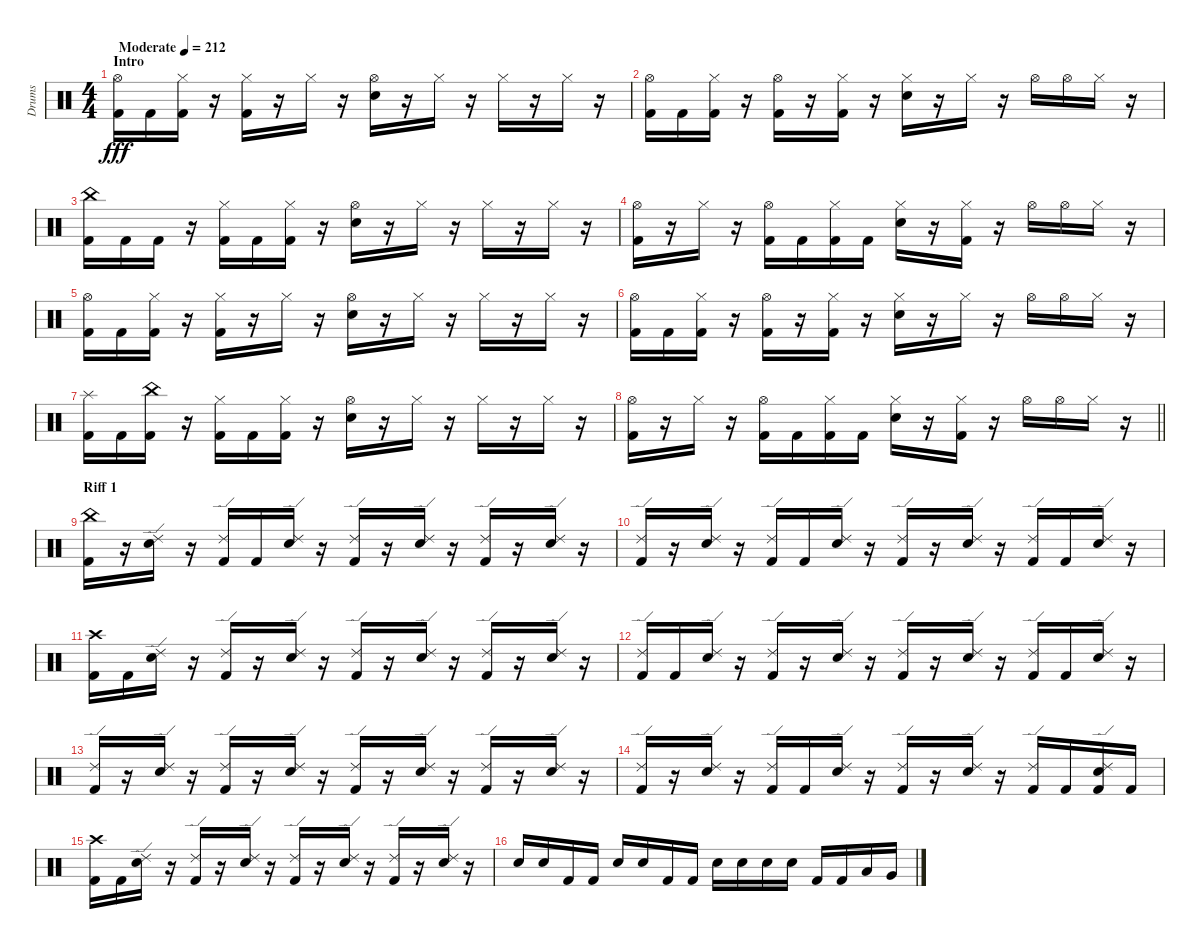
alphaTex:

\track ("Drums" "Drums") {instrument percussion}
\staff {score}
\articulation defaults
\ts (4 4)
\section ("" "Intro")
\tempo (212 "Moderate")
\clef neutral
\ks c
("Kick (hit) 2" "Hi-Hat (open)").16{dy fff} "Kick (hit) 2".16 ("Kick (hit) 2" "Hi-Hat (closed)").16 r.16 ("Kick (hit) 2" "Hi-Hat (closed)").16 r.16 "Hi-Hat (closed)".16 r.16 ("Snare (hit) 2" "Hi-Hat (open)").16 r.16 "Hi-Hat (closed)".16 r.16 "Hi-Hat (closed)".16 r.16 "Hi-Hat (closed)".16 r.16 |
("Kick (hit) 2" "Hi-Hat (open)").16 "Kick (hit) 2".16 ("Kick (hit) 2" "Hi-Hat (closed)").16 r.16 ("Kick (hit) 2" "Hi-Hat (open)").16 r.16 ("Kick (hit) 2" "Hi-Hat (closed)").16 r.16 ("Snare (hit) 2" "Hi-Hat (closed)").16 r.16 "Hi-Hat (closed)".16 r.16 "Hi-Hat (open)".16 "Hi-Hat (open)".16 "Hi-Hat (closed)".16 r.16 |
("Kick (hit) 2" "China (hit)").16 "Kick (hit) 2".16 "Kick (hit) 2".16 r.16 ("Kick (hit) 2" "Hi-Hat (closed)").16 "Kick (hit) 2".16 ("Kick (hit) 2" "Hi-Hat (closed)").16 r.16 ("Snare (hit) 2" "Hi-Hat (open)").16 r.16 "Hi-Hat (closed)".16 r.16 "Hi-Hat (closed)".16 r.16 "Hi-Hat (closed)".16 r.16 |
("Kick (hit) 2" "Hi-Hat (open)").16 r.16 "Hi-Hat (closed)".16 r.16 ("Kick (hit) 2" "Hi-Hat (open)").16 "Kick (hit) 2".16 ("Kick (hit) 2" "Hi-Hat (closed)").16 "Kick (hit) 2".16 ("Snare (hit) 2" "Hi-Hat (closed)").16 r.16 ("Kick (hit) 2" "Hi-Hat (closed)").16 r.16 "Hi-Hat (open)".16 "Hi-Hat (open)".16 "Hi-Hat (closed)".16 r.16 |
("Kick (hit) 2" "Hi-Hat (open)").16 "Kick (hit) 2".16 ("Kick (hit) 2" "Hi-Hat (closed)").16 r.16 ("Kick (hit) 2" "Hi-Hat (closed)").16 r.16 "Hi-Hat (closed)".16 r.16 ("Snare (hit) 2" "Hi-Hat (open)").16 r.16 "Hi-Hat (closed)".16 r.16 "Hi-Hat (closed)".16 r.16 "Hi-Hat (closed)".16 r.16 |
("Kick (hit) 2" "Hi-Hat (open)").16 "Kick (hit) 2".16 ("Kick (hit) 2" "Hi-Hat (closed)").16 r.16 ("Kick (hit) 2" "Hi-Hat (open)").16 r.16 ("Kick (hit) 2" "Hi-Hat (closed)").16 r.16 ("Snare (hit) 2" "Hi-Hat (closed)").16 r.16 "Hi-Hat (closed)".16 r.16 "Hi-Hat (open)".16 "Hi-Hat (open)".16 "Hi-Hat (closed)".16 r.16 |
("Kick (hit) 2" "Splash (hit)").16 "Kick (hit) 2".16 ("Kick (hit) 2" "China (hit)").16 r.16 ("Kick (hit) 2" "Hi-Hat (closed)").16 "Kick (hit) 2".16 ("Kick (hit) 2" "Hi-Hat (closed)").16 r.16 ("Snare (hit) 2" "Hi-Hat (open)").16 r.16 "Hi-Hat (closed)".16 r.16 "Hi-Hat (closed)".16 r.16 "Hi-Hat (closed)".16 r.16 |
\barLineRight lightlight
("Kick (hit) 2" "Hi-Hat (open)").16 r.16 "Hi-Hat (closed)".16 r.16 ("Kick (hit) 2" "Hi-Hat (open)").16 "Kick (hit) 2".16 ("Kick (hit) 2" "Hi-Hat (closed)").16 "Kick (hit) 2".16 ("Snare (hit) 2" "Hi-Hat (closed)").16 r.16 ("Kick (hit) 2" "Hi-Hat (closed)").16 r.16 "Hi-Hat (open)".16 "Hi-Hat (open)".16 "Hi-Hat (closed)".16 r.16 |
\section ("" "Riff 1")
("Kick (hit) 2" "China (hit)").16 r.16 ("Snare (hit) 2" "Ride (edge) 2").16 r.16 ("Kick (hit) 2" "Ride (edge) 2").16 "Kick (hit) 2".16 ("Snare (hit) 2" "Ride (edge) 2").16 r.16 ("Kick (hit) 2" "Ride (edge) 2").16 r.16 ("Snare (hit) 2" "Ride (edge) 2").16 r.16 ("Kick (hit) 2" "Ride (edge) 2").16 r.16 ("Snare (hit) 2" "Ride (edge) 2").16 r.16 |
("Kick (hit) 2" "Ride (edge) 2").16 r.16 ("Snare (hit) 2" "Ride (edge) 2").16 r.16 ("Kick (hit) 2" "Ride (edge) 2").16 "Kick (hit) 2".16 ("Snare (hit) 2" "Ride (edge) 2").16 r.16 ("Kick (hit) 2" "Ride (edge) 2").16 r.16 ("Snare (hit) 2" "Ride (edge) 2").16 r.16 ("Kick (hit) 2" "Ride (edge) 2").16 "Kick (hit) 2".16 ("Snare (hit) 2" "Ride (edge) 2").16 r.16 |
("Kick (hit) 2" "Crash high (hit)").16 "Kick (hit) 2".16 ("Snare (hit) 2" "Ride (edge) 2").16 r.16 ("Kick (hit) 2" "Ride (edge) 2").16 r.16 ("Snare (hit) 2" "Ride (edge) 2").16 r.16 ("Kick (hit) 2" "Ride (edge) 2").16 r.16 ("Snare (hit) 2" "Ride (edge) 2").16 r.16 ("Kick (hit) 2" "Ride (edge) 2").16 r.16 ("Snare (hit) 2" "Ride (edge) 2").16 r.16 |
("Kick (hit) 2" "Ride (edge) 2").16 "Kick (hit) 2".16 ("Snare (hit) 2" "Ride (edge) 2").16 r.16 ("Kick (hit) 2" "Ride (edge) 2").16 r.16 ("Snare (hit) 2" "Ride (edge) 2").16 r.16 ("Kick (hit) 2" "Ride (edge) 2").16 r.16 ("Snare (hit) 2" "Ride (edge) 2").16 r.16 ("Kick (hit) 2" "Ride (edge) 2").16 "Kick (hit) 2".16 ("Snare (hit) 2" "Ride (edge) 2").16 r.16 |
("Kick (hit) 2" "Ride (edge) 2").16 r.16 ("Snare (hit) 2" "Ride (edge) 2").16 r.16 ("Kick (hit) 2" "Ride (edge) 2").16 r.16 ("Snare (hit) 2" "Ride (edge) 2").16 r.16 ("Kick (hit) 2" "Ride (edge) 2").16 r.16 ("Snare (hit) 2" "Ride (edge) 2").16 r.16 ("Kick (hit) 2" "Ride (edge) 2").16 r.16 ("Snare (hit) 2" "Ride (edge) 2").16 r.16 |
("Kick (hit) 2" "Ride (edge) 2").16 r.16 ("Snare (hit) 2" "Ride (edge) 2").16 r.16 ("Kick (hit) 2" "Ride (edge) 2").16 "Kick (hit) 2".16 ("Snare (hit) 2" "Ride (edge) 2").16 r.16 ("Kick (hit) 2" "Ride (edge) 2").16 r.16 ("Snare (hit) 2" "Ride (edge) 2").16 r.16 ("Kick (hit) 2" "Ride (edge) 2").16 "Kick (hit) 2".16 ("Kick (hit) 2" "Snare (hit) 2" "Ride (edge) 2").16 "Kick (hit) 2".16 |
("Kick (hit) 2" "Crash high (hit)").16 "Kick (hit) 2".16 ("Snare (hit) 2" "Ride (edge) 2").16 r.16 ("Kick (hit) 2" "Ride (edge) 2").16 r.16 ("Snare (hit) 2" "Ride (edge) 2").16 r.16 ("Kick (hit) 2" "Ride (edge) 2").16 r.16 ("Snare (hit) 2" "Ride (edge) 2").16 r.16 ("Kick (hit) 2" "Ride (edge) 2").16 r.16 ("Snare (hit) 2" "Ride (edge) 2").16 r.16 |
"Snare (hit) 2".16 "Snare (hit) 2".16 "Kick (hit) 2".16 "Kick (hit) 2".16 "Snare (hit) 2".16 "Snare (hit) 2".16 "Kick (hit) 2".16 "Kick (hit) 2".16 "Snare (hit) 2".16 "Snare (hit) 2".16 "Snare (hit) 2".16 "Snare (hit) 2".16 "Kick (hit) 2".16 "Kick (hit) 2".16 "Low Tom (hit)".16 "Very Low Tom (hit)".16
